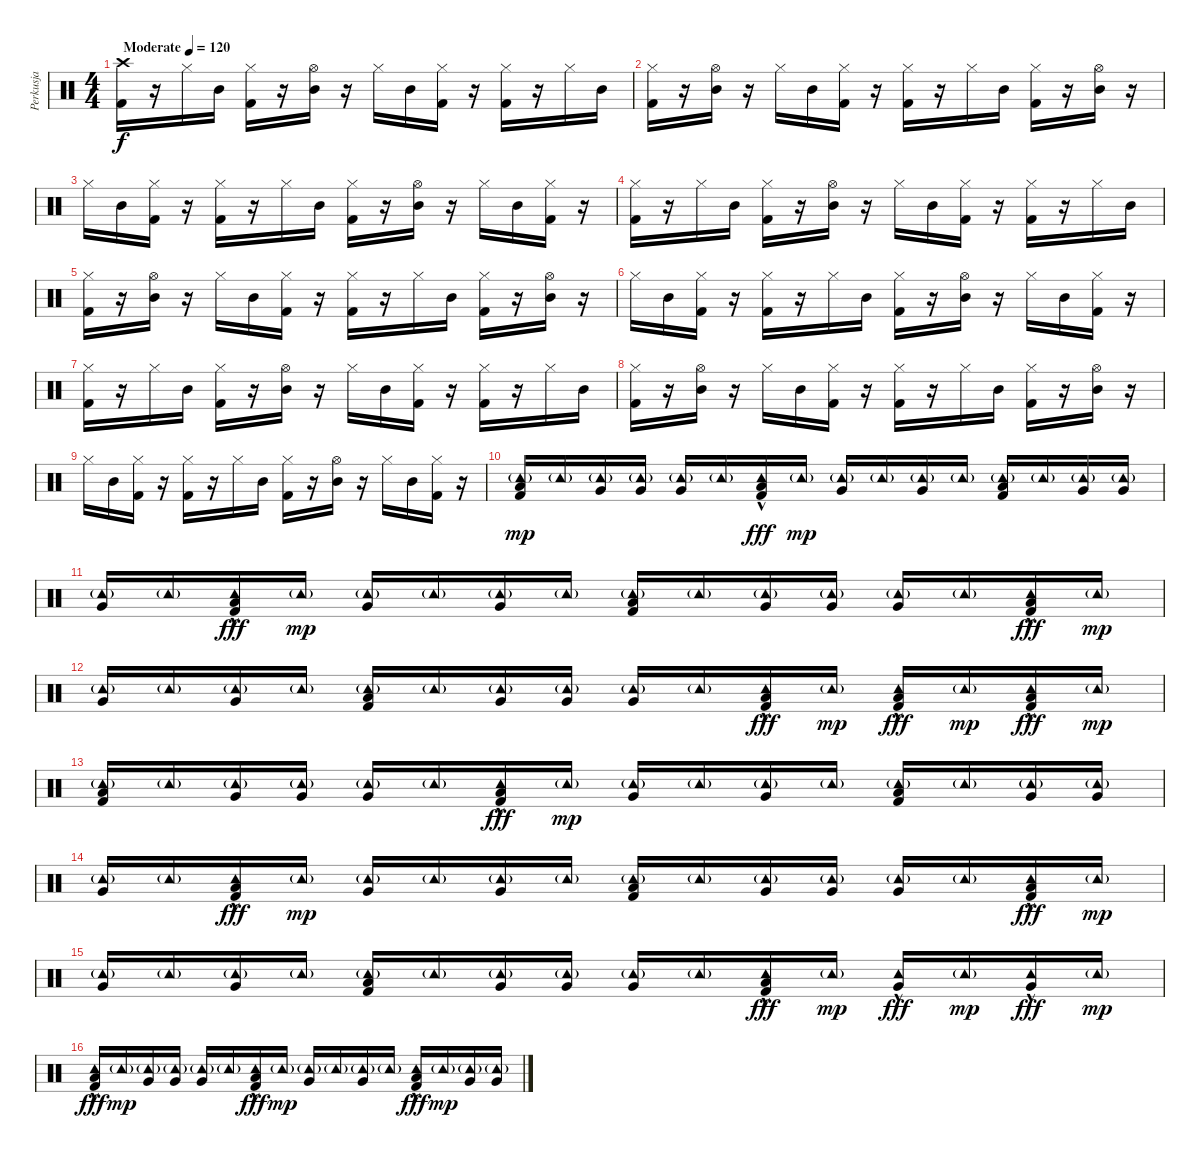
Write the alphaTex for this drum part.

\track ("Perkusja" "Perkusja") {instrument percussion}
\staff {score}
\articulation defaults
\ts (4 4)
\tempo (120 "Moderate")
\clef neutral
\ks c
("Crash high (hit)" "Kick (hit) 2").16{dy f} r.16 "Hi-Hat (closed)".16 "Mid Tom (hit)".16 ("Hi-Hat (closed)" "Kick (hit) 2").16 r.16 ("Hi-Hat (open)" "Mid Tom (hit)").16 r.16 "Hi-Hat (closed)".16 "Mid Tom (hit)".16 ("Hi-Hat (closed)" "Kick (hit) 2").16 r.16 ("Hi-Hat (closed)" "Kick (hit) 2").16 r.16 "Hi-Hat (closed)".16 "Mid Tom (hit)".16 |
("Hi-Hat (closed)" "Kick (hit) 2").16 r.16 ("Hi-Hat (open)" "Mid Tom (hit)").16 r.16 "Hi-Hat (closed)".16 "Mid Tom (hit)".16 ("Hi-Hat (closed)" "Kick (hit) 2").16 r.16 ("Hi-Hat (closed)" "Kick (hit) 2").16 r.16 "Hi-Hat (closed)".16 "Mid Tom (hit)".16 ("Hi-Hat (closed)" "Kick (hit) 2").16 r.16 ("Hi-Hat (open)" "Mid Tom (hit)").16 r.16 |
"Hi-Hat (closed)".16 "Mid Tom (hit)".16 ("Hi-Hat (closed)" "Kick (hit) 2").16 r.16 ("Hi-Hat (closed)" "Kick (hit) 2").16 r.16 "Hi-Hat (closed)".16 "Mid Tom (hit)".16 ("Hi-Hat (closed)" "Kick (hit) 2").16 r.16 ("Hi-Hat (open)" "Mid Tom (hit)").16 r.16 "Hi-Hat (closed)".16 "Mid Tom (hit)".16 ("Hi-Hat (closed)" "Kick (hit) 2").16 r.16 |
("Hi-Hat (closed)" "Kick (hit) 2").16 r.16 "Hi-Hat (closed)".16 "Mid Tom (hit)".16 ("Hi-Hat (closed)" "Kick (hit) 2").16 r.16 ("Hi-Hat (open)" "Mid Tom (hit)").16 r.16 "Hi-Hat (closed)".16 "Mid Tom (hit)".16 ("Hi-Hat (closed)" "Kick (hit) 2").16 r.16 ("Hi-Hat (closed)" "Kick (hit) 2").16 r.16 "Hi-Hat (closed)".16 "Mid Tom (hit)".16 |
("Hi-Hat (closed)" "Kick (hit) 2").16 r.16 ("Hi-Hat (open)" "Mid Tom (hit)").16 r.16 "Hi-Hat (closed)".16 "Mid Tom (hit)".16 ("Hi-Hat (closed)" "Kick (hit) 2").16 r.16 ("Hi-Hat (closed)" "Kick (hit) 2").16 r.16 "Hi-Hat (closed)".16 "Mid Tom (hit)".16 ("Hi-Hat (closed)" "Kick (hit) 2").16 r.16 ("Hi-Hat (open)" "Mid Tom (hit)").16 r.16 |
"Hi-Hat (closed)".16 "Mid Tom (hit)".16 ("Hi-Hat (closed)" "Kick (hit) 2").16 r.16 ("Hi-Hat (closed)" "Kick (hit) 2").16 r.16 "Hi-Hat (closed)".16 "Mid Tom (hit)".16 ("Hi-Hat (closed)" "Kick (hit) 2").16 r.16 ("Hi-Hat (open)" "Mid Tom (hit)").16 r.16 "Hi-Hat (closed)".16 "Mid Tom (hit)".16 ("Hi-Hat (closed)" "Kick (hit) 2").16 r.16 |
("Hi-Hat (closed)" "Kick (hit) 2").16 r.16 "Hi-Hat (closed)".16 "Mid Tom (hit)".16 ("Hi-Hat (closed)" "Kick (hit) 2").16 r.16 ("Hi-Hat (open)" "Mid Tom (hit)").16 r.16 "Hi-Hat (closed)".16 "Mid Tom (hit)".16 ("Hi-Hat (closed)" "Kick (hit) 2").16 r.16 ("Hi-Hat (closed)" "Kick (hit) 2").16 r.16 "Hi-Hat (closed)".16 "Mid Tom (hit)".16 |
("Hi-Hat (closed)" "Kick (hit) 2").16 r.16 ("Hi-Hat (open)" "Mid Tom (hit)").16 r.16 "Hi-Hat (closed)".16 "Mid Tom (hit)".16 ("Hi-Hat (closed)" "Kick (hit) 2").16 r.16 ("Hi-Hat (closed)" "Kick (hit) 2").16 r.16 "Hi-Hat (closed)".16 "Mid Tom (hit)".16 ("Hi-Hat (closed)" "Kick (hit) 2").16 r.16 ("Hi-Hat (open)" "Mid Tom (hit)").16 r.16 |
"Hi-Hat (closed)".16 "Mid Tom (hit)".16 ("Hi-Hat (closed)" "Kick (hit) 2").16 r.16 ("Hi-Hat (closed)" "Kick (hit) 2").16 r.16 "Hi-Hat (closed)".16 "Mid Tom (hit)".16 ("Hi-Hat (closed)" "Kick (hit) 2").16 r.16 ("Hi-Hat (open)" "Mid Tom (hit)").16 r.16 "Hi-Hat (closed)".16 "Mid Tom (hit)".16 ("Hi-Hat (closed)" "Kick (hit) 2").16 r.16 |
("Tambourine (hit)"{g} "Low Tom (hit)" "Kick (hit) 2").16{dy mp} "Tambourine (hit)"{g}.16 ("Tambourine (hit)"{g} "Very Low Tom (hit)").16 ("Tambourine (hit)"{g} "Very Low Tom (hit)").16 ("Tambourine (hit)"{g} "Very Low Tom (hit)").16 "Tambourine (hit)"{g}.16 ("Tambourine (hit)"{hac} "Low Tom (hit)" "Kick (hit) 2").16{dy fff} "Tambourine (hit)"{g}.16{dy mp} ("Tambourine (hit)"{g} "Very Low Tom (hit)").16 "Tambourine (hit)"{g}.16 ("Tambourine (hit)"{g} "Very Low Tom (hit)").16 "Tambourine (hit)"{g}.16 ("Tambourine (hit)"{g} "Low Tom (hit)" "Kick (hit) 2").16 "Tambourine (hit)"{g}.16 ("Tambourine (hit)"{g} "Very Low Tom (hit)").16 ("Tambourine (hit)"{g} "Very Low Tom (hit)").16 |
("Tambourine (hit)"{g} "Very Low Tom (hit)").16 "Tambourine (hit)"{g}.16 ("Tambourine (hit)"{hac} "Low Tom (hit)" "Kick (hit) 2").16{dy fff} "Tambourine (hit)"{g}.16{dy mp} ("Tambourine (hit)"{g} "Very Low Tom (hit)").16 "Tambourine (hit)"{g}.16 ("Tambourine (hit)"{g} "Very Low Tom (hit)").16 "Tambourine (hit)"{g}.16 ("Tambourine (hit)"{g} "Low Tom (hit)" "Kick (hit) 2").16 "Tambourine (hit)"{g}.16 ("Tambourine (hit)"{g} "Very Low Tom (hit)").16 ("Tambourine (hit)"{g} "Very Low Tom (hit)").16 ("Tambourine (hit)"{g} "Very Low Tom (hit)").16 "Tambourine (hit)"{g}.16 ("Tambourine (hit)"{hac} "Low Tom (hit)" "Kick (hit) 2").16{dy fff} "Tambourine (hit)"{g}.16{dy mp} |
("Tambourine (hit)"{g} "Very Low Tom (hit)").16 "Tambourine (hit)"{g}.16 ("Tambourine (hit)"{g} "Very Low Tom (hit)").16 "Tambourine (hit)"{g}.16 ("Tambourine (hit)"{g} "Low Tom (hit)" "Kick (hit) 2").16 "Tambourine (hit)"{g}.16 ("Tambourine (hit)"{g} "Very Low Tom (hit)").16 ("Tambourine (hit)"{g} "Very Low Tom (hit)").16 ("Tambourine (hit)"{g} "Very Low Tom (hit)").16 "Tambourine (hit)"{g}.16 ("Tambourine (hit)"{hac} "Low Tom (hit)" "Kick (hit) 2").16{dy fff} "Tambourine (hit)"{g}.16{dy mp} ("Tambourine (hit)"{hac} "Low Tom (hit)" "Kick (hit) 2").16{dy fff} "Tambourine (hit)"{g}.16{dy mp} ("Tambourine (hit)"{hac} "Low Tom (hit)" "Kick (hit) 2").16{dy fff} "Tambourine (hit)"{g}.16{dy mp} |
("Tambourine (hit)"{g} "Low Tom (hit)" "Kick (hit) 2").16 "Tambourine (hit)"{g}.16 ("Tambourine (hit)"{g} "Very Low Tom (hit)").16 ("Tambourine (hit)"{g} "Very Low Tom (hit)").16 ("Tambourine (hit)"{g} "Very Low Tom (hit)").16 "Tambourine (hit)"{g}.16 ("Tambourine (hit)"{hac} "Low Tom (hit)" "Kick (hit) 2").16{dy fff} "Tambourine (hit)"{g}.16{dy mp} ("Tambourine (hit)"{g} "Very Low Tom (hit)").16 "Tambourine (hit)"{g}.16 ("Tambourine (hit)"{g} "Very Low Tom (hit)").16 "Tambourine (hit)"{g}.16 ("Tambourine (hit)"{g} "Low Tom (hit)" "Kick (hit) 2").16 "Tambourine (hit)"{g}.16 ("Tambourine (hit)"{g} "Very Low Tom (hit)").16 ("Tambourine (hit)"{g} "Very Low Tom (hit)").16 |
("Tambourine (hit)"{g} "Very Low Tom (hit)").16 "Tambourine (hit)"{g}.16 ("Tambourine (hit)"{hac} "Low Tom (hit)" "Kick (hit) 2").16{dy fff} "Tambourine (hit)"{g}.16{dy mp} ("Tambourine (hit)"{g} "Very Low Tom (hit)").16 "Tambourine (hit)"{g}.16 ("Tambourine (hit)"{g} "Very Low Tom (hit)").16 "Tambourine (hit)"{g}.16 ("Tambourine (hit)"{g} "Low Tom (hit)" "Kick (hit) 2").16 "Tambourine (hit)"{g}.16 ("Tambourine (hit)"{g} "Very Low Tom (hit)").16 ("Tambourine (hit)"{g} "Very Low Tom (hit)").16 ("Tambourine (hit)"{g} "Very Low Tom (hit)").16 "Tambourine (hit)"{g}.16 ("Tambourine (hit)"{hac} "Low Tom (hit)" "Kick (hit) 2").16{dy fff} "Tambourine (hit)"{g}.16{dy mp} |
("Tambourine (hit)"{g} "Very Low Tom (hit)").16 "Tambourine (hit)"{g}.16 ("Tambourine (hit)"{g} "Very Low Tom (hit)").16 "Tambourine (hit)"{g}.16 ("Tambourine (hit)"{g} "Low Tom (hit)" "Kick (hit) 2").16 "Tambourine (hit)"{g}.16 ("Tambourine (hit)"{g} "Very Low Tom (hit)").16 ("Tambourine (hit)"{g} "Very Low Tom (hit)").16 ("Tambourine (hit)"{g} "Very Low Tom (hit)").16 "Tambourine (hit)"{g}.16 ("Tambourine (hit)"{hac} "Low Tom (hit)" "Kick (hit) 2").16{dy fff} "Tambourine (hit)"{g}.16{dy mp} ("Tambourine (hit)"{hac} "Very Low Tom (hit)").16{dy fff} "Tambourine (hit)"{g}.16{dy mp} ("Tambourine (hit)"{hac} "Very Low Tom (hit)").16{dy fff} "Tambourine (hit)"{g}.16{dy mp} |
("Tambourine (hit)"{hac} "Low Tom (hit)" "Kick (hit) 2").16{dy fff} "Tambourine (hit)"{g}.16{dy mp} ("Tambourine (hit)"{g} "Very Low Tom (hit)").16 ("Tambourine (hit)"{g} "Very Low Tom (hit)").16 ("Tambourine (hit)"{g} "Very Low Tom (hit)").16 "Tambourine (hit)"{g}.16 ("Tambourine (hit)"{hac} "Low Tom (hit)" "Kick (hit) 2").16{dy fff} "Tambourine (hit)"{g}.16{dy mp} ("Tambourine (hit)"{g} "Very Low Tom (hit)").16 "Tambourine (hit)"{g}.16 ("Tambourine (hit)"{g} "Very Low Tom (hit)").16 "Tambourine (hit)"{g}.16 ("Tambourine (hit)"{hac} "Low Tom (hit)" "Kick (hit) 2").16{dy fff} "Tambourine (hit)"{g}.16{dy mp} ("Tambourine (hit)"{g} "Very Low Tom (hit)").16 ("Tambourine (hit)"{g} "Very Low Tom (hit)").16
